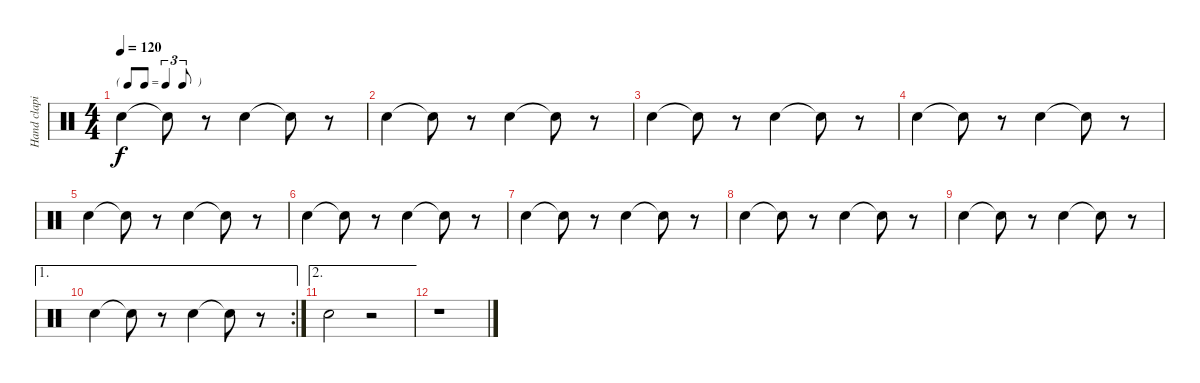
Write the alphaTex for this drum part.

\track ("Hand claping" "Hand clapi") {instrument percussion}
\staff {score}
\articulation defaults
\ts (4 4)
\tf triplet8th
\tempo 120
\clef neutral
\ks c "Hand Clap (hit)".4{dy f} "Hand Clap (hit)"{t}.8
r.8 "Hand Clap (hit)".4 "Hand Clap (hit)"{t}.8 r.8 |
"Hand Clap (hit)".4 "Hand Clap (hit)"{t}.8 r.8 "Hand Clap (hit)".4 "Hand Clap (hit)"{t}.8 r.8 |
"Hand Clap (hit)".4 "Hand Clap (hit)"{t}.8 r.8 "Hand Clap (hit)".4 "Hand Clap (hit)"{t}.8 r.8 |
"Hand Clap (hit)".4 "Hand Clap (hit)"{t}.8 r.8 "Hand Clap (hit)".4 "Hand Clap (hit)"{t}.8 r.8 |
"Hand Clap (hit)".4 "Hand Clap (hit)"{t}.8 r.8 "Hand Clap (hit)".4 "Hand Clap (hit)"{t}.8 r.8 |
"Hand Clap (hit)".4 "Hand Clap (hit)"{t}.8 r.8 "Hand Clap (hit)".4 "Hand Clap (hit)"{t}.8 r.8 |
"Hand Clap (hit)".4 "Hand Clap (hit)"{t}.8 r.8 "Hand Clap (hit)".4 "Hand Clap (hit)"{t}.8 r.8 |
"Hand Clap (hit)".4 "Hand Clap (hit)"{t}.8 r.8 "Hand Clap (hit)".4 "Hand Clap (hit)"{t}.8 r.8 |
"Hand Clap (hit)".4 "Hand Clap (hit)"{t}.8 r.8 "Hand Clap (hit)".4 "Hand Clap (hit)"{t}.8 r.8 |
\ae 1
\rc 2 "Hand Clap (hit)".4 "Hand Clap (hit)"{t}.8
r.8 "Hand Clap (hit)".4 "Hand Clap (hit)"{t}.8 r.8 |
\ae 2 "Hand Clap (hit)".2
r.2 |
r.1
